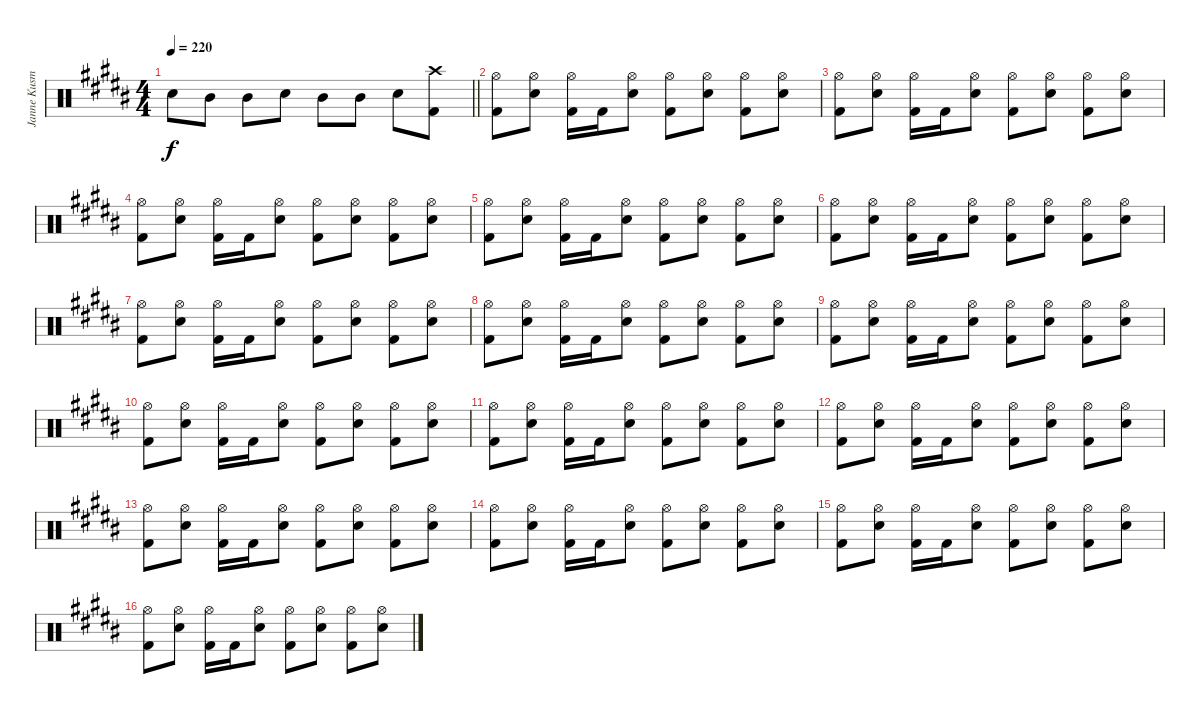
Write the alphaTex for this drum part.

\track ("Janne Kusmin" "Janne Kusm") {instrument percussion}
\staff {score}
\articulation defaults
\ts (4 4)
\tempo 220
\clef neutral
\barLineRight lightlight
\ks b "Electric Snare (hit)".8{dy f} "Mid Tom (hit)".8 "Mid Tom (hit)".8 "Electric Snare (hit)".8 "Mid Tom (hit)".8 "Mid Tom (hit)".8 "Electric Snare (hit)".8
("Crash high (hit)" "Kick (hit) 2").8 |
("Hi-Hat (open)" "Kick (hit) 2").8 ("Hi-Hat (open)" "Electric Snare (hit)").8 ("Hi-Hat (open)" "Kick (hit) 2").16 "Kick (hit) 2".16 ("Hi-Hat (open)" "Electric Snare (hit)").8 ("Hi-Hat (open)" "Kick (hit) 2").8 ("Hi-Hat (open)" "Electric Snare (hit)").8 ("Hi-Hat (open)" "Kick (hit) 2").8 ("Hi-Hat (open)" "Electric Snare (hit)").8 |
("Hi-Hat (open)" "Kick (hit) 2").8 ("Hi-Hat (open)" "Electric Snare (hit)").8 ("Hi-Hat (open)" "Kick (hit) 2").16 "Kick (hit) 2".16 ("Hi-Hat (open)" "Electric Snare (hit)").8 ("Hi-Hat (open)" "Kick (hit) 2").8 ("Hi-Hat (open)" "Electric Snare (hit)").8 ("Hi-Hat (open)" "Kick (hit) 2").8 ("Hi-Hat (open)" "Electric Snare (hit)").8 |
("Hi-Hat (open)" "Kick (hit) 2").8 ("Hi-Hat (open)" "Electric Snare (hit)").8 ("Hi-Hat (open)" "Kick (hit) 2").16 "Kick (hit) 2".16 ("Hi-Hat (open)" "Electric Snare (hit)").8 ("Hi-Hat (open)" "Kick (hit) 2").8 ("Hi-Hat (open)" "Electric Snare (hit)").8 ("Hi-Hat (open)" "Kick (hit) 2").8 ("Hi-Hat (open)" "Electric Snare (hit)").8 |
("Hi-Hat (open)" "Kick (hit) 2").8 ("Hi-Hat (open)" "Electric Snare (hit)").8 ("Hi-Hat (open)" "Kick (hit) 2").16 "Kick (hit) 2".16 ("Hi-Hat (open)" "Electric Snare (hit)").8 ("Hi-Hat (open)" "Kick (hit) 2").8 ("Hi-Hat (open)" "Electric Snare (hit)").8 ("Hi-Hat (open)" "Kick (hit) 2").8 ("Hi-Hat (open)" "Electric Snare (hit)").8 |
("Hi-Hat (open)" "Kick (hit) 2").8 ("Hi-Hat (open)" "Electric Snare (hit)").8 ("Hi-Hat (open)" "Kick (hit) 2").16 "Kick (hit) 2".16 ("Hi-Hat (open)" "Electric Snare (hit)").8 ("Hi-Hat (open)" "Kick (hit) 2").8 ("Hi-Hat (open)" "Electric Snare (hit)").8 ("Hi-Hat (open)" "Kick (hit) 2").8 ("Hi-Hat (open)" "Electric Snare (hit)").8 |
("Hi-Hat (open)" "Kick (hit) 2").8 ("Hi-Hat (open)" "Electric Snare (hit)").8 ("Hi-Hat (open)" "Kick (hit) 2").16 "Kick (hit) 2".16 ("Hi-Hat (open)" "Electric Snare (hit)").8 ("Hi-Hat (open)" "Kick (hit) 2").8 ("Hi-Hat (open)" "Electric Snare (hit)").8 ("Hi-Hat (open)" "Kick (hit) 2").8 ("Hi-Hat (open)" "Electric Snare (hit)").8 |
("Hi-Hat (open)" "Kick (hit) 2").8 ("Hi-Hat (open)" "Electric Snare (hit)").8 ("Hi-Hat (open)" "Kick (hit) 2").16 "Kick (hit) 2".16 ("Hi-Hat (open)" "Electric Snare (hit)").8 ("Hi-Hat (open)" "Kick (hit) 2").8 ("Hi-Hat (open)" "Electric Snare (hit)").8 ("Hi-Hat (open)" "Kick (hit) 2").8 ("Hi-Hat (open)" "Electric Snare (hit)").8 |
("Hi-Hat (open)" "Kick (hit) 2").8 ("Hi-Hat (open)" "Electric Snare (hit)").8 ("Hi-Hat (open)" "Kick (hit) 2").16 "Kick (hit) 2".16 ("Hi-Hat (open)" "Electric Snare (hit)").8 ("Hi-Hat (open)" "Kick (hit) 2").8 ("Hi-Hat (open)" "Electric Snare (hit)").8 ("Hi-Hat (open)" "Kick (hit) 2").8 ("Hi-Hat (open)" "Electric Snare (hit)").8 |
("Hi-Hat (open)" "Kick (hit) 2").8 ("Hi-Hat (open)" "Electric Snare (hit)").8 ("Hi-Hat (open)" "Kick (hit) 2").16 "Kick (hit) 2".16 ("Hi-Hat (open)" "Electric Snare (hit)").8 ("Hi-Hat (open)" "Kick (hit) 2").8 ("Hi-Hat (open)" "Electric Snare (hit)").8 ("Hi-Hat (open)" "Kick (hit) 2").8 ("Hi-Hat (open)" "Electric Snare (hit)").8 |
("Hi-Hat (open)" "Kick (hit) 2").8 ("Hi-Hat (open)" "Electric Snare (hit)").8 ("Hi-Hat (open)" "Kick (hit) 2").16 "Kick (hit) 2".16 ("Hi-Hat (open)" "Electric Snare (hit)").8 ("Hi-Hat (open)" "Kick (hit) 2").8 ("Hi-Hat (open)" "Electric Snare (hit)").8 ("Hi-Hat (open)" "Kick (hit) 2").8 ("Hi-Hat (open)" "Electric Snare (hit)").8 |
("Hi-Hat (open)" "Kick (hit) 2").8 ("Hi-Hat (open)" "Electric Snare (hit)").8 ("Hi-Hat (open)" "Kick (hit) 2").16 "Kick (hit) 2".16 ("Hi-Hat (open)" "Electric Snare (hit)").8 ("Hi-Hat (open)" "Kick (hit) 2").8 ("Hi-Hat (open)" "Electric Snare (hit)").8 ("Hi-Hat (open)" "Kick (hit) 2").8 ("Hi-Hat (open)" "Electric Snare (hit)").8 |
("Hi-Hat (open)" "Kick (hit) 2").8 ("Hi-Hat (open)" "Electric Snare (hit)").8 ("Hi-Hat (open)" "Kick (hit) 2").16 "Kick (hit) 2".16 ("Hi-Hat (open)" "Electric Snare (hit)").8 ("Hi-Hat (open)" "Kick (hit) 2").8 ("Hi-Hat (open)" "Electric Snare (hit)").8 ("Hi-Hat (open)" "Kick (hit) 2").8 ("Hi-Hat (open)" "Electric Snare (hit)").8 |
("Hi-Hat (open)" "Kick (hit) 2").8 ("Hi-Hat (open)" "Electric Snare (hit)").8 ("Hi-Hat (open)" "Kick (hit) 2").16 "Kick (hit) 2".16 ("Hi-Hat (open)" "Electric Snare (hit)").8 ("Hi-Hat (open)" "Kick (hit) 2").8 ("Hi-Hat (open)" "Electric Snare (hit)").8 ("Hi-Hat (open)" "Kick (hit) 2").8 ("Hi-Hat (open)" "Electric Snare (hit)").8 |
("Hi-Hat (open)" "Kick (hit) 2").8 ("Hi-Hat (open)" "Electric Snare (hit)").8 ("Hi-Hat (open)" "Kick (hit) 2").16 "Kick (hit) 2".16 ("Hi-Hat (open)" "Electric Snare (hit)").8 ("Hi-Hat (open)" "Kick (hit) 2").8 ("Hi-Hat (open)" "Electric Snare (hit)").8 ("Hi-Hat (open)" "Kick (hit) 2").8 ("Hi-Hat (open)" "Electric Snare (hit)").8 |
("Hi-Hat (open)" "Kick (hit) 2").8 ("Hi-Hat (open)" "Electric Snare (hit)").8 ("Hi-Hat (open)" "Kick (hit) 2").16 "Kick (hit) 2".16 ("Hi-Hat (open)" "Electric Snare (hit)").8 ("Hi-Hat (open)" "Kick (hit) 2").8 ("Hi-Hat (open)" "Electric Snare (hit)").8 ("Hi-Hat (open)" "Kick (hit) 2").8 ("Hi-Hat (open)" "Electric Snare (hit)").8
